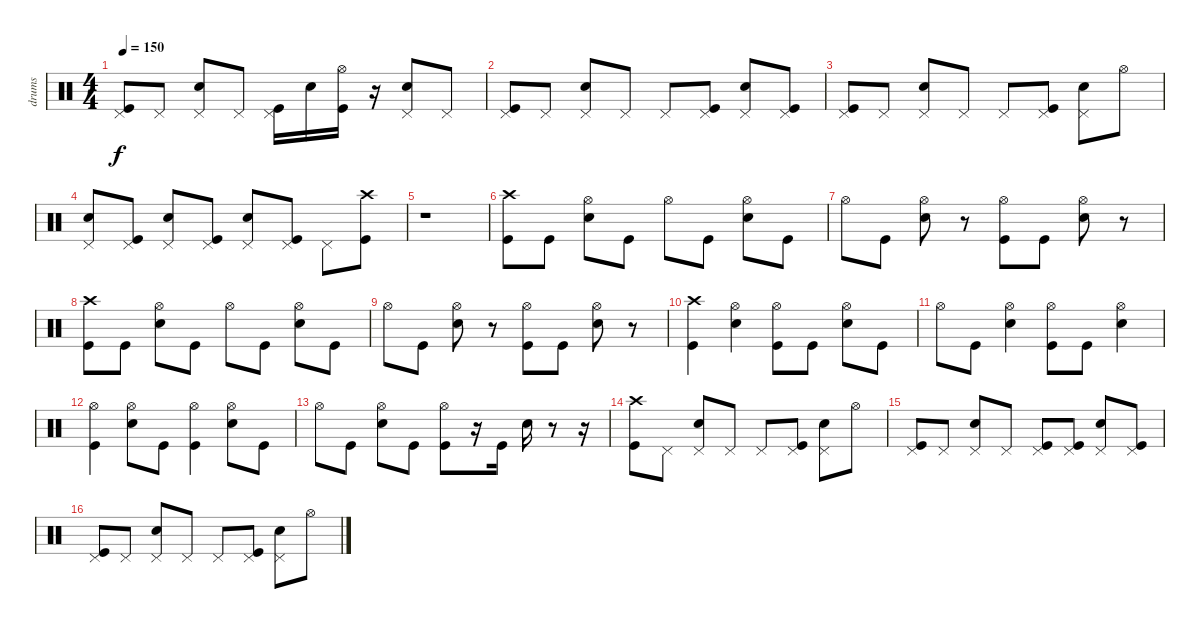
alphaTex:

\track ("drums" "drums") {instrument percussion}
\staff {score}
\articulation defaults
\ts (4 4)
\tempo 150
\clef neutral
\ks c
("Pedal Hi-Hat (hit)" "Kick (hit)").8{dy f} "Pedal Hi-Hat (hit)".8 ("Pedal Hi-Hat (hit)" "Electric Snare (hit)").8 "Pedal Hi-Hat (hit)".8 ("Pedal Hi-Hat (hit)" "Kick (hit)").16 "Electric Snare (hit)".16 ("Hi-Hat (open)" "Kick (hit)").16 r.16 ("Pedal Hi-Hat (hit)" "Electric Snare (hit)").8 "Pedal Hi-Hat (hit)".8 |
("Pedal Hi-Hat (hit)" "Kick (hit)").8 "Pedal Hi-Hat (hit)".8 ("Pedal Hi-Hat (hit)" "Electric Snare (hit)").8 "Pedal Hi-Hat (hit)".8 "Pedal Hi-Hat (hit)".8 ("Pedal Hi-Hat (hit)" "Kick (hit)").8 ("Pedal Hi-Hat (hit)" "Electric Snare (hit)").8 ("Pedal Hi-Hat (hit)" "Kick (hit)").8 |
("Pedal Hi-Hat (hit)" "Kick (hit)").8 "Pedal Hi-Hat (hit)".8 ("Pedal Hi-Hat (hit)" "Electric Snare (hit)").8 "Pedal Hi-Hat (hit)".8 "Pedal Hi-Hat (hit)".8 ("Pedal Hi-Hat (hit)" "Kick (hit)").8 ("Pedal Hi-Hat (hit)" "Electric Snare (hit)").8 "Hi-Hat (open)".8 |
("Pedal Hi-Hat (hit)" "Electric Snare (hit)").8 ("Pedal Hi-Hat (hit)" "Kick (hit)").8 ("Pedal Hi-Hat (hit)" "Electric Snare (hit)").8 ("Pedal Hi-Hat (hit)" "Kick (hit)").8 ("Pedal Hi-Hat (hit)" "Electric Snare (hit)").8 ("Pedal Hi-Hat (hit)" "Kick (hit)").8 "Pedal Hi-Hat (hit)".8 ("Crash high (hit)" "Kick (hit)").8 |
r.1 |
("Crash high (hit)" "Kick (hit)").8 "Kick (hit)".8 ("Hi-Hat (open)" "Electric Snare (hit)").8 "Kick (hit)".8 "Hi-Hat (open)".8 "Kick (hit)".8 ("Hi-Hat (open)" "Electric Snare (hit)").8 "Kick (hit)".8 |
"Hi-Hat (open)".8 "Kick (hit)".8 ("Hi-Hat (open)" "Electric Snare (hit)").8 r.8 ("Hi-Hat (open)" "Kick (hit)").8 "Kick (hit)".8 ("Hi-Hat (open)" "Electric Snare (hit)").8 r.8 |
("Crash high (hit)" "Kick (hit)").8 "Kick (hit)".8 ("Hi-Hat (open)" "Electric Snare (hit)").8 "Kick (hit)".8 "Hi-Hat (open)".8 "Kick (hit)".8 ("Hi-Hat (open)" "Electric Snare (hit)").8 "Kick (hit)".8 |
"Hi-Hat (open)".8 "Kick (hit)".8 ("Hi-Hat (open)" "Electric Snare (hit)").8 r.8 ("Hi-Hat (open)" "Kick (hit)").8 "Kick (hit)".8 ("Hi-Hat (open)" "Electric Snare (hit)").8 r.8 |
("Crash high (hit)" "Kick (hit)").4 ("Hi-Hat (open)" "Electric Snare (hit)").4 ("Hi-Hat (open)" "Kick (hit)").8 "Kick (hit)".8 ("Hi-Hat (open)" "Electric Snare (hit)").8 "Kick (hit)".8 |
"Hi-Hat (open)".8 "Kick (hit)".8 ("Hi-Hat (open)" "Electric Snare (hit)").4 ("Hi-Hat (open)" "Kick (hit)").8 "Kick (hit)".8 ("Hi-Hat (open)" "Electric Snare (hit)").4 |
("Hi-Hat (open)" "Kick (hit)").4 ("Hi-Hat (open)" "Electric Snare (hit)").8 "Kick (hit)".8 ("Hi-Hat (open)" "Kick (hit)").4 ("Hi-Hat (open)" "Electric Snare (hit)").8 "Kick (hit)".8 |
"Hi-Hat (open)".8 "Kick (hit)".8 ("Hi-Hat (open)" "Electric Snare (hit)").8 "Kick (hit)".8 ("Hi-Hat (open)" "Kick (hit)").8 r.16 "Kick (hit)".16 "Electric Snare (hit)".16 r.8 r.16 |
("Crash high (hit)" "Kick (hit)").8 "Pedal Hi-Hat (hit)".8 ("Pedal Hi-Hat (hit)" "Electric Snare (hit)").8 "Pedal Hi-Hat (hit)".8 "Pedal Hi-Hat (hit)".8 ("Pedal Hi-Hat (hit)" "Kick (hit)").8 ("Pedal Hi-Hat (hit)" "Electric Snare (hit)").8 "Hi-Hat (open)".8 |
("Pedal Hi-Hat (hit)" "Kick (hit)").8 "Pedal Hi-Hat (hit)".8 ("Pedal Hi-Hat (hit)" "Electric Snare (hit)").8 "Pedal Hi-Hat (hit)".8 ("Pedal Hi-Hat (hit)" "Kick (hit)").8 ("Pedal Hi-Hat (hit)" "Kick (hit)").8 ("Pedal Hi-Hat (hit)" "Electric Snare (hit)").8 ("Pedal Hi-Hat (hit)" "Kick (hit)").8 |
("Pedal Hi-Hat (hit)" "Kick (hit)").8 "Pedal Hi-Hat (hit)".8 ("Pedal Hi-Hat (hit)" "Electric Snare (hit)").8 "Pedal Hi-Hat (hit)".8 "Pedal Hi-Hat (hit)".8 ("Pedal Hi-Hat (hit)" "Kick (hit)").8 ("Pedal Hi-Hat (hit)" "Electric Snare (hit)").8 "Hi-Hat (open)".8
